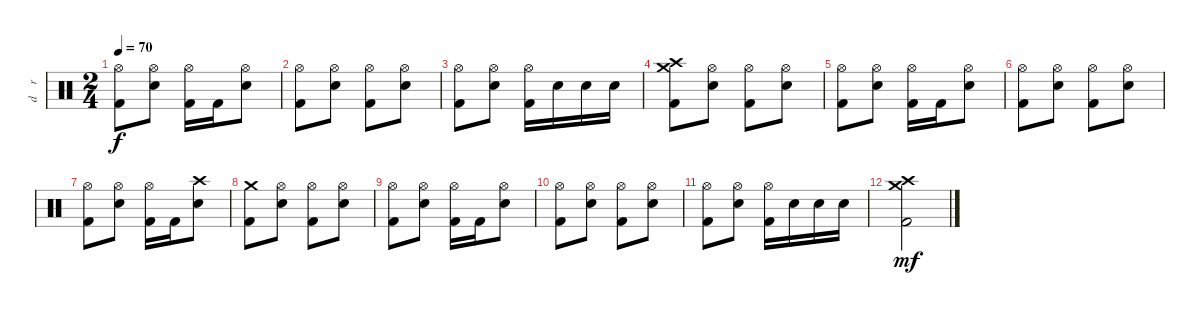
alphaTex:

\track ("d    r     u    m    s" "d    r    ") {instrument percussion}
\staff {score}
\articulation defaults
\ts (2 4)
\tempo 70
\clef neutral
\ks c
("Hi-Hat (open)" "Kick (hit) 2").8{dy f} ("Hi-Hat (open)" "Electric Snare (hit)").8 ("Hi-Hat (open)" "Kick (hit) 2").16 "Kick (hit) 2".16 ("Hi-Hat (open)" "Electric Snare (hit)").8 |
("Hi-Hat (open)" "Kick (hit) 2").8 ("Hi-Hat (open)" "Electric Snare (hit)").8 ("Hi-Hat (open)" "Kick (hit) 2").8 ("Hi-Hat (open)" "Electric Snare (hit)").8 |
("Hi-Hat (open)" "Kick (hit) 2").8 ("Hi-Hat (open)" "Electric Snare (hit)").8 ("Hi-Hat (open)" "Kick (hit) 2").16 "Electric Snare (hit)".16 "Electric Snare (hit)".16 "Electric Snare (hit)".16 |
("Crash medium (hit)" "Crash high (hit)" "Kick (hit) 2").8 ("Hi-Hat (open)" "Electric Snare (hit)").8 ("Hi-Hat (open)" "Kick (hit) 2").8 ("Hi-Hat (open)" "Electric Snare (hit)").8 |
("Hi-Hat (open)" "Kick (hit) 2").8 ("Hi-Hat (open)" "Electric Snare (hit)").8 ("Hi-Hat (open)" "Kick (hit) 2").16 "Kick (hit) 2".16 ("Hi-Hat (open)" "Electric Snare (hit)").8 |
("Hi-Hat (open)" "Kick (hit) 2").8 ("Hi-Hat (open)" "Electric Snare (hit)").8 ("Hi-Hat (open)" "Kick (hit) 2").8 ("Hi-Hat (open)" "Electric Snare (hit)").8 |
("Hi-Hat (open)" "Kick (hit) 2").8 ("Hi-Hat (open)" "Electric Snare (hit)").8 ("Hi-Hat (open)" "Kick (hit) 2").16 "Kick (hit) 2".16 ("Crash high (hit)" "Electric Snare (hit)").8 |
("Crash medium (hit)" "Kick (hit) 2").8 ("Hi-Hat (open)" "Electric Snare (hit)").8 ("Hi-Hat (open)" "Kick (hit) 2").8 ("Hi-Hat (open)" "Electric Snare (hit)").8 |
("Hi-Hat (open)" "Kick (hit) 2").8 ("Hi-Hat (open)" "Electric Snare (hit)").8 ("Hi-Hat (open)" "Kick (hit) 2").16 "Kick (hit) 2".16 ("Hi-Hat (open)" "Electric Snare (hit)").8 |
("Hi-Hat (open)" "Kick (hit) 2").8 ("Hi-Hat (open)" "Electric Snare (hit)").8 ("Hi-Hat (open)" "Kick (hit) 2").8 ("Hi-Hat (open)" "Electric Snare (hit)").8 |
("Hi-Hat (open)" "Kick (hit) 2").8 ("Hi-Hat (open)" "Electric Snare (hit)").8 ("Hi-Hat (open)" "Kick (hit) 2").16 "Electric Snare (hit)".16 "Electric Snare (hit)".16 "Electric Snare (hit)".16 |
("Crash high (hit)" "Crash medium (hit)" "Kick (hit) 2").2{dy mf}
